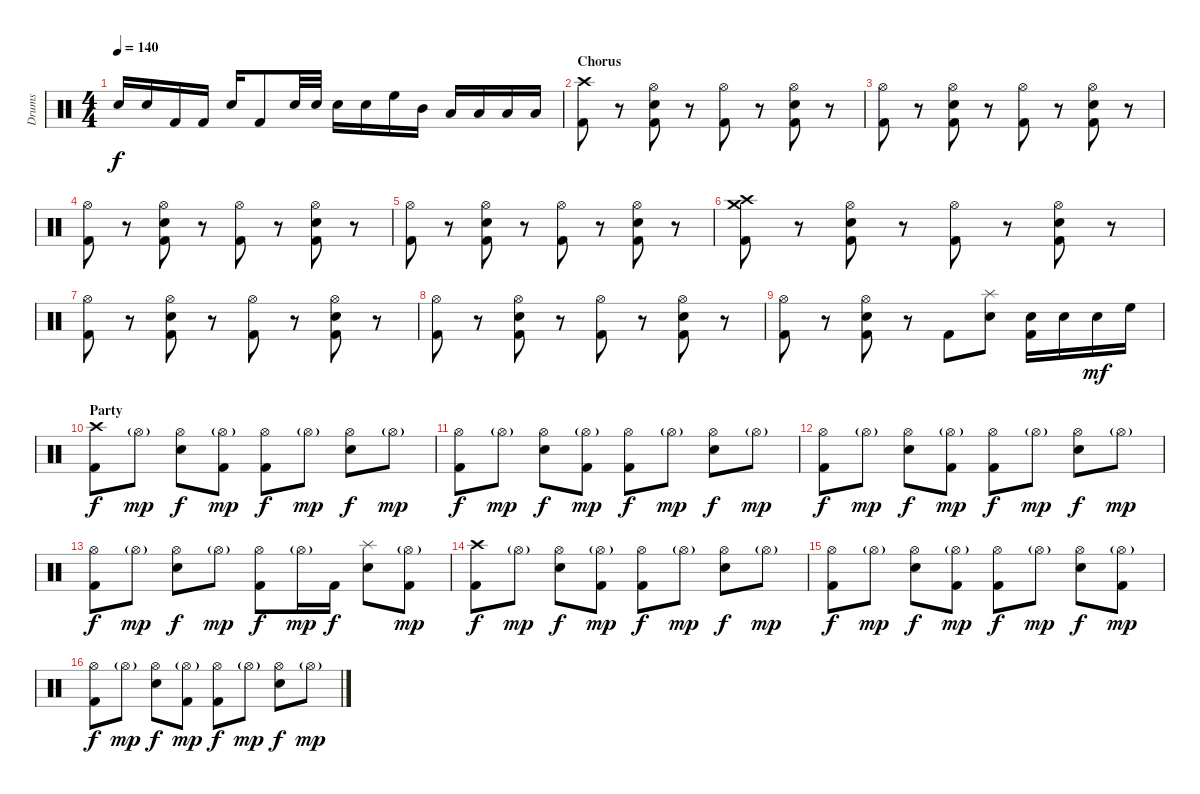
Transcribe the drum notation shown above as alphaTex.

\track ("Drums" "Drums") {instrument percussion}
\staff {score}
\articulation defaults
\ts (4 4)
\tempo 140
\clef neutral
\ks c "Electric Snare (hit)".16{dy f} "Electric Snare (hit)".16 "Kick (hit) 2".16 "Kick (hit) 2".16 "Electric Snare (hit)".16 "Kick (hit) 2".8 "Electric Snare (hit)".32 "Electric Snare (hit)".32 "Electric Snare (hit)".16 "Electric Snare (hit)".16 "High Floor Tom (hit)".16 "Mid Tom (hit)".16 "Low Tom (hit)".16 "Low Tom (hit)".16 "Low Floor Tom (hit)".16 "Low Floor Tom (hit)".16
|
\section ("" "Chorus")
("Crash high (hit)" "Kick (hit) 2").8 r.8 ("Hi-Hat (open)" "Electric Snare (hit)" "Kick (hit) 2").8 r.8 ("Hi-Hat (open)" "Kick (hit) 2").8 r.8 ("Hi-Hat (open)" "Electric Snare (hit)" "Kick (hit) 2").8 r.8 |
("Hi-Hat (open)" "Kick (hit) 2").8 r.8 ("Hi-Hat (open)" "Electric Snare (hit)" "Kick (hit) 2").8 r.8 ("Hi-Hat (open)" "Kick (hit) 2").8 r.8 ("Hi-Hat (open)" "Electric Snare (hit)" "Kick (hit) 2").8 r.8 |
("Hi-Hat (open)" "Kick (hit) 2").8 r.8 ("Hi-Hat (open)" "Electric Snare (hit)" "Kick (hit) 2").8 r.8 ("Hi-Hat (open)" "Kick (hit) 2").8 r.8 ("Hi-Hat (open)" "Electric Snare (hit)" "Kick (hit) 2").8 r.8 |
("Hi-Hat (open)" "Kick (hit) 2").8 r.8 ("Hi-Hat (open)" "Electric Snare (hit)" "Kick (hit) 2").8 r.8 ("Hi-Hat (open)" "Kick (hit) 2").8 r.8 ("Hi-Hat (open)" "Electric Snare (hit)" "Kick (hit) 2").8 r.8 |
("Crash high (hit)" "Crash medium (hit)" "Kick (hit) 2").8 r.8 ("Hi-Hat (open)" "Electric Snare (hit)" "Kick (hit) 2").8 r.8 ("Hi-Hat (open)" "Kick (hit) 2").8 r.8 ("Hi-Hat (open)" "Electric Snare (hit)" "Kick (hit) 2").8 r.8 |
("Hi-Hat (open)" "Kick (hit) 2").8 r.8 ("Hi-Hat (open)" "Electric Snare (hit)" "Kick (hit) 2").8 r.8 ("Hi-Hat (open)" "Kick (hit) 2").8 r.8 ("Hi-Hat (open)" "Electric Snare (hit)" "Kick (hit) 2").8 r.8 |
("Hi-Hat (open)" "Kick (hit) 2").8 r.8 ("Hi-Hat (open)" "Electric Snare (hit)" "Kick (hit) 2").8 r.8 ("Hi-Hat (open)" "Kick (hit) 2").8 r.8 ("Hi-Hat (open)" "Electric Snare (hit)" "Kick (hit) 2").8 r.8 |
("Hi-Hat (open)" "Kick (hit) 2").8 r.8 ("Hi-Hat (open)" "Electric Snare (hit)" "Kick (hit) 2").8 r.8 "Kick (hit) 2".8 ("Splash (hit)" "Electric Snare (hit)").8 ("Electric Snare (hit)" "Kick (hit) 2").16 "Electric Snare (hit)".16 "Electric Snare (hit)".16{dy mf} "High Floor Tom (hit)".16 |
\section ("" "Party")
("Crash high (hit)" "Kick (hit) 2").8{dy f} "Hi-Hat (open)"{g}.8{dy mp} ("Hi-Hat (open)" "Electric Snare (hit)").8{dy f} ("Hi-Hat (open)"{g} "Kick (hit) 2").8{dy mp} ("Hi-Hat (open)" "Kick (hit) 2").8{dy f} "Hi-Hat (open)"{g}.8{dy mp} ("Hi-Hat (open)" "Electric Snare (hit)").8{dy f} "Hi-Hat (open)"{g}.8{dy mp} |
("Hi-Hat (open)" "Kick (hit) 2").8{dy f} "Hi-Hat (open)"{g}.8{dy mp} ("Hi-Hat (open)" "Electric Snare (hit)").8{dy f} ("Hi-Hat (open)"{g} "Kick (hit) 2").8{dy mp} ("Hi-Hat (open)" "Kick (hit) 2").8{dy f} "Hi-Hat (open)"{g}.8{dy mp} ("Hi-Hat (open)" "Electric Snare (hit)").8{dy f} "Hi-Hat (open)"{g}.8{dy mp} |
("Hi-Hat (open)" "Kick (hit) 2").8{dy f} "Hi-Hat (open)"{g}.8{dy mp} ("Hi-Hat (open)" "Electric Snare (hit)").8{dy f} ("Hi-Hat (open)"{g} "Kick (hit) 2").8{dy mp} ("Hi-Hat (open)" "Kick (hit) 2").8{dy f} "Hi-Hat (open)"{g}.8{dy mp} ("Hi-Hat (open)" "Electric Snare (hit)").8{dy f} "Hi-Hat (open)"{g}.8{dy mp} |
("Hi-Hat (open)" "Kick (hit) 2").8{dy f} "Hi-Hat (open)"{g}.8{dy mp} ("Hi-Hat (open)" "Electric Snare (hit)").8{dy f} "Hi-Hat (open)"{g}.8{dy mp} ("Hi-Hat (open)" "Kick (hit) 2").8{dy f} "Hi-Hat (open)"{g}.16{dy mp} "Kick (hit) 2".16{dy f} ("Splash (hit)" "Electric Snare (hit)").8 ("Hi-Hat (open)"{g} "Kick (hit) 2").8{dy mp} |
("Crash high (hit)" "Kick (hit) 2").8{dy f} "Hi-Hat (open)"{g}.8{dy mp} ("Hi-Hat (open)" "Electric Snare (hit)").8{dy f} ("Hi-Hat (open)"{g} "Kick (hit) 2").8{dy mp} ("Hi-Hat (open)" "Kick (hit) 2").8{dy f} "Hi-Hat (open)"{g}.8{dy mp} ("Hi-Hat (open)" "Electric Snare (hit)").8{dy f} "Hi-Hat (open)"{g}.8{dy mp} |
("Hi-Hat (open)" "Kick (hit) 2").8{dy f} "Hi-Hat (open)"{g}.8{dy mp} ("Hi-Hat (open)" "Electric Snare (hit)").8{dy f} ("Hi-Hat (open)"{g} "Kick (hit) 2").8{dy mp} ("Hi-Hat (open)" "Kick (hit) 2").8{dy f} "Hi-Hat (open)"{g}.8{dy mp} ("Hi-Hat (open)" "Electric Snare (hit)").8{dy f} ("Hi-Hat (open)"{g} "Kick (hit) 2").8{dy mp} |
("Hi-Hat (open)" "Kick (hit) 2").8{dy f} "Hi-Hat (open)"{g}.8{dy mp} ("Hi-Hat (open)" "Electric Snare (hit)").8{dy f} ("Hi-Hat (open)"{g} "Kick (hit) 2").8{dy mp} ("Hi-Hat (open)" "Kick (hit) 2").8{dy f} "Hi-Hat (open)"{g}.8{dy mp} ("Hi-Hat (open)" "Electric Snare (hit)").8{dy f} "Hi-Hat (open)"{g}.8{dy mp}
